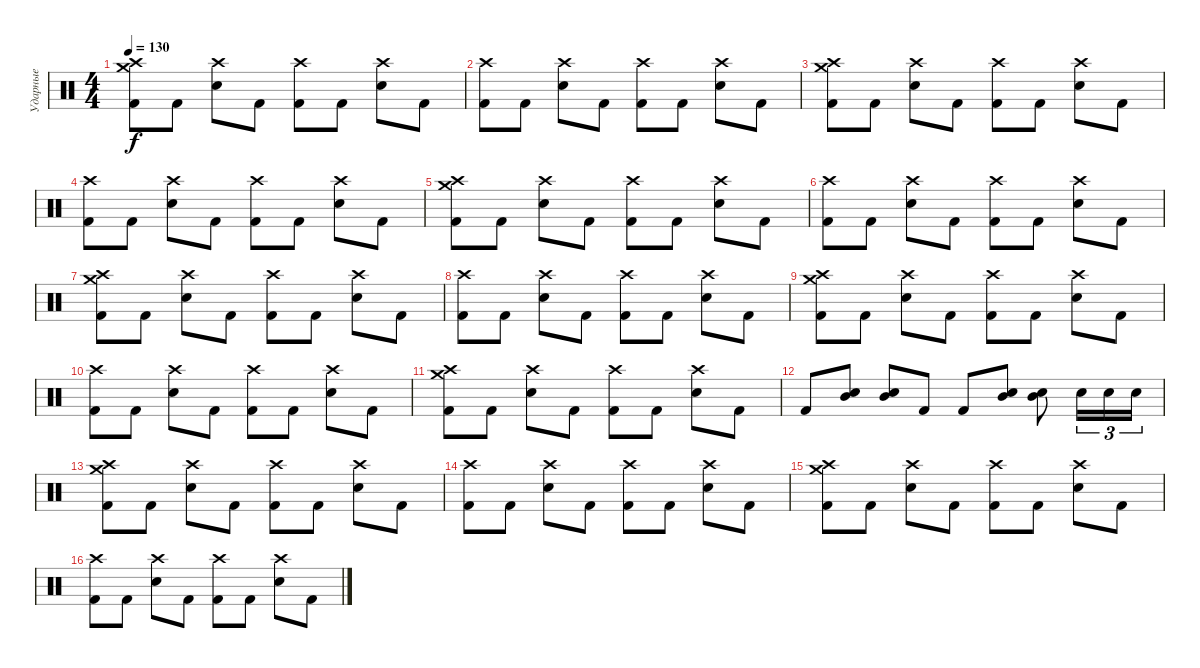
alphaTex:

\track ("Ударные" "Ударные") {instrument percussion}
\staff {score}
\articulation defaults
\ts (4 4)
\tempo 130
\clef neutral
\ks c
("Kick (hit) 2" "Crash medium (hit)" "Crash high (hit)").8{dy f} "Kick (hit) 2".8 ("Electric Snare (hit)" "Crash high (hit)").8 "Kick (hit) 2".8 ("Kick (hit) 2" "Crash high (hit)").8 "Kick (hit) 2".8 ("Electric Snare (hit)" "Crash high (hit)").8 "Kick (hit) 2".8 |
("Kick (hit) 2" "Crash high (hit)").8 "Kick (hit) 2".8 ("Electric Snare (hit)" "Crash high (hit)").8 "Kick (hit) 2".8 ("Kick (hit) 2" "Crash high (hit)").8 "Kick (hit) 2".8 ("Electric Snare (hit)" "Crash high (hit)").8 "Kick (hit) 2".8 |
("Kick (hit) 2" "Crash medium (hit)" "Crash high (hit)").8 "Kick (hit) 2".8 ("Electric Snare (hit)" "Crash high (hit)").8 "Kick (hit) 2".8 ("Kick (hit) 2" "Crash high (hit)").8 "Kick (hit) 2".8 ("Electric Snare (hit)" "Crash high (hit)").8 "Kick (hit) 2".8 |
("Kick (hit) 2" "Crash high (hit)").8 "Kick (hit) 2".8 ("Electric Snare (hit)" "Crash high (hit)").8 "Kick (hit) 2".8 ("Kick (hit) 2" "Crash high (hit)").8 "Kick (hit) 2".8 ("Electric Snare (hit)" "Crash high (hit)").8 "Kick (hit) 2".8 |
("Kick (hit) 2" "Crash medium (hit)" "Crash high (hit)").8 "Kick (hit) 2".8 ("Electric Snare (hit)" "Crash high (hit)").8 "Kick (hit) 2".8 ("Kick (hit) 2" "Crash high (hit)").8 "Kick (hit) 2".8 ("Electric Snare (hit)" "Crash high (hit)").8 "Kick (hit) 2".8 |
("Kick (hit) 2" "Crash high (hit)").8 "Kick (hit) 2".8 ("Electric Snare (hit)" "Crash high (hit)").8 "Kick (hit) 2".8 ("Kick (hit) 2" "Crash high (hit)").8 "Kick (hit) 2".8 ("Electric Snare (hit)" "Crash high (hit)").8 "Kick (hit) 2".8 |
("Kick (hit) 2" "Crash medium (hit)" "Crash high (hit)").8 "Kick (hit) 2".8 ("Electric Snare (hit)" "Crash high (hit)").8 "Kick (hit) 2".8 ("Kick (hit) 2" "Crash high (hit)").8 "Kick (hit) 2".8 ("Electric Snare (hit)" "Crash high (hit)").8 "Kick (hit) 2".8 |
("Kick (hit) 2" "Crash high (hit)").8 "Kick (hit) 2".8 ("Electric Snare (hit)" "Crash high (hit)").8 "Kick (hit) 2".8 ("Kick (hit) 2" "Crash high (hit)").8 "Kick (hit) 2".8 ("Electric Snare (hit)" "Crash high (hit)").8 "Kick (hit) 2".8 |
("Kick (hit) 2" "Crash medium (hit)" "Crash high (hit)").8 "Kick (hit) 2".8 ("Electric Snare (hit)" "Crash high (hit)").8 "Kick (hit) 2".8 ("Kick (hit) 2" "Crash high (hit)").8 "Kick (hit) 2".8 ("Electric Snare (hit)" "Crash high (hit)").8 "Kick (hit) 2".8 |
("Kick (hit) 2" "Crash high (hit)").8 "Kick (hit) 2".8 ("Electric Snare (hit)" "Crash high (hit)").8 "Kick (hit) 2".8 ("Kick (hit) 2" "Crash high (hit)").8 "Kick (hit) 2".8 ("Electric Snare (hit)" "Crash high (hit)").8 "Kick (hit) 2".8 |
("Kick (hit) 2" "Crash medium (hit)" "Crash high (hit)").8 "Kick (hit) 2".8 ("Electric Snare (hit)" "Crash high (hit)").8 "Kick (hit) 2".8 ("Kick (hit) 2" "Crash high (hit)").8 "Kick (hit) 2".8 ("Electric Snare (hit)" "Crash high (hit)").8 "Kick (hit) 2".8 |
"Kick (hit) 2".8 ("Electric Snare (hit)" "Mid Tom (hit)").8 ("Electric Snare (hit)" "Mid Tom (hit)").8 "Kick (hit) 2".8 "Kick (hit) 2".8 ("Electric Snare (hit)" "Mid Tom (hit)").8 ("Electric Snare (hit)" "Mid Tom (hit)").8 "Electric Snare (hit)".16{tu (3 2)} "Electric Snare (hit)".16{tu (3 2)} "Electric Snare (hit)".16{tu (3 2)} |
("Kick (hit) 2" "Crash medium (hit)" "Crash high (hit)").8 "Kick (hit) 2".8 ("Electric Snare (hit)" "Crash high (hit)").8 "Kick (hit) 2".8 ("Kick (hit) 2" "Crash high (hit)").8 "Kick (hit) 2".8 ("Electric Snare (hit)" "Crash high (hit)").8 "Kick (hit) 2".8 |
("Kick (hit) 2" "Crash high (hit)").8 "Kick (hit) 2".8 ("Electric Snare (hit)" "Crash high (hit)").8 "Kick (hit) 2".8 ("Kick (hit) 2" "Crash high (hit)").8 "Kick (hit) 2".8 ("Electric Snare (hit)" "Crash high (hit)").8 "Kick (hit) 2".8 |
("Kick (hit) 2" "Crash medium (hit)" "Crash high (hit)").8 "Kick (hit) 2".8 ("Electric Snare (hit)" "Crash high (hit)").8 "Kick (hit) 2".8 ("Kick (hit) 2" "Crash high (hit)").8 "Kick (hit) 2".8 ("Electric Snare (hit)" "Crash high (hit)").8 "Kick (hit) 2".8 |
("Kick (hit) 2" "Crash high (hit)").8 "Kick (hit) 2".8 ("Electric Snare (hit)" "Crash high (hit)").8 "Kick (hit) 2".8 ("Kick (hit) 2" "Crash high (hit)").8 "Kick (hit) 2".8 ("Electric Snare (hit)" "Crash high (hit)").8 "Kick (hit) 2".8
